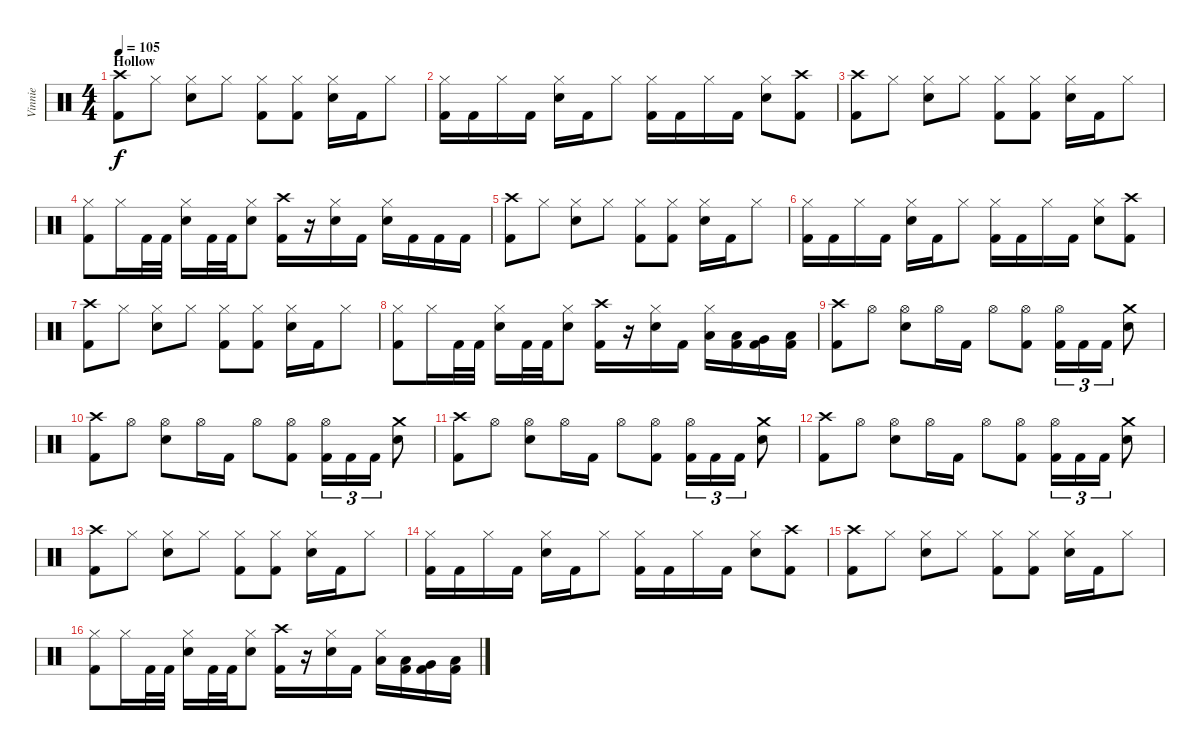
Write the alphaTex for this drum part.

\track ("Vinnie" "Vinnie") {instrument percussion}
\staff {score}
\articulation defaults
\ts (4 4)
\section ("" "Hollow")
\tempo 105
\clef neutral
\ks c
("Crash high (hit)" "Kick (hit) 2").8{dy f} "Hi-Hat (closed)".8 ("Hi-Hat (closed)" "Electric Snare (hit)").8 "Hi-Hat (closed)".8 ("Hi-Hat (closed)" "Kick (hit) 2").8 ("Hi-Hat (closed)" "Kick (hit) 2").8 ("Hi-Hat (closed)" "Electric Snare (hit)").16 "Kick (hit) 2".16 "Hi-Hat (closed)".8 |
("Hi-Hat (closed)" "Kick (hit) 2").16 "Kick (hit) 2".16 "Hi-Hat (closed)".16 "Kick (hit) 2".16 ("Hi-Hat (closed)" "Electric Snare (hit)").16 "Kick (hit) 2".16 "Hi-Hat (closed)".8 ("Hi-Hat (closed)" "Kick (hit) 2").16 "Kick (hit) 2".16 "Hi-Hat (closed)".16 "Kick (hit) 2".16 ("Hi-Hat (closed)" "Electric Snare (hit)").8 ("Crash high (hit)" "Kick (hit) 2").8 |
("Crash high (hit)" "Kick (hit) 2").8 "Hi-Hat (closed)".8 ("Hi-Hat (closed)" "Electric Snare (hit)").8 "Hi-Hat (closed)".8 ("Hi-Hat (closed)" "Kick (hit) 2").8 ("Hi-Hat (closed)" "Kick (hit) 2").8 ("Hi-Hat (closed)" "Electric Snare (hit)").16 "Kick (hit) 2".16 "Hi-Hat (closed)".8 |
("Hi-Hat (closed)" "Kick (hit) 2").8 "Hi-Hat (closed)".16 "Kick (hit) 2".32 "Kick (hit) 2".32 ("Hi-Hat (closed)" "Electric Snare (hit)").16 "Kick (hit) 2".32 "Kick (hit) 2".32 ("Hi-Hat (closed)" "Electric Snare (hit)").8 ("Crash high (hit)" "Kick (hit) 2").16 r.16 ("Hi-Hat (closed)" "Electric Snare (hit)").16 "Kick (hit) 2".16 ("Hi-Hat (closed)" "Electric Snare (hit)").16 "Kick (hit) 2".16 "Kick (hit) 2".16 "Kick (hit) 2".16 |
("Crash high (hit)" "Kick (hit) 2").8 "Hi-Hat (closed)".8 ("Hi-Hat (closed)" "Electric Snare (hit)").8 "Hi-Hat (closed)".8 ("Hi-Hat (closed)" "Kick (hit) 2").8 ("Hi-Hat (closed)" "Kick (hit) 2").8 ("Hi-Hat (closed)" "Electric Snare (hit)").16 "Kick (hit) 2".16 "Hi-Hat (closed)".8 |
("Hi-Hat (closed)" "Kick (hit) 2").16 "Kick (hit) 2".16 "Hi-Hat (closed)".16 "Kick (hit) 2".16 ("Hi-Hat (closed)" "Electric Snare (hit)").16 "Kick (hit) 2".16 "Hi-Hat (closed)".8 ("Hi-Hat (closed)" "Kick (hit) 2").16 "Kick (hit) 2".16 "Hi-Hat (closed)".16 "Kick (hit) 2".16 ("Hi-Hat (closed)" "Electric Snare (hit)").8 ("Crash high (hit)" "Kick (hit) 2").8 |
("Crash high (hit)" "Kick (hit) 2").8 "Hi-Hat (closed)".8 ("Hi-Hat (closed)" "Electric Snare (hit)").8 "Hi-Hat (closed)".8 ("Hi-Hat (closed)" "Kick (hit) 2").8 ("Hi-Hat (closed)" "Kick (hit) 2").8 ("Hi-Hat (closed)" "Electric Snare (hit)").16 "Kick (hit) 2".16 "Hi-Hat (closed)".8 |
("Hi-Hat (closed)" "Kick (hit) 2").8 "Hi-Hat (closed)".16 "Kick (hit) 2".32 "Kick (hit) 2".32 ("Hi-Hat (closed)" "Electric Snare (hit)").16 "Kick (hit) 2".32 "Kick (hit) 2".32 ("Hi-Hat (closed)" "Electric Snare (hit)").8 ("Crash high (hit)" "Kick (hit) 2").16 r.16 ("Hi-Hat (closed)" "Electric Snare (hit)").16 "Kick (hit) 2".16 ("Hi-Hat (closed)" "Low Tom (hit)").16 ("Low Tom (hit)" "Kick (hit) 2").16 ("Very Low Tom (hit)" "Kick (hit) 2").16 ("Low Floor Tom (hit)" "Kick (hit) 2").16 |
("Crash high (hit)" "Kick (hit) 2").8 "Hi-Hat (open)".8 ("Hi-Hat (open)" "Electric Snare (hit)").8 "Hi-Hat (open)".16 "Kick (hit) 2".16 "Hi-Hat (open)".8 ("Hi-Hat (open)" "Kick (hit) 2").8 ("Hi-Hat (open)" "Kick (hit) 2").16{tu (3 2)} "Kick (hit) 2".16{tu (3 2)} "Kick (hit) 2".16{tu (3 2)} ("Crash medium (hit)" "Electric Snare (hit)").8 |
("Crash high (hit)" "Kick (hit) 2").8 "Hi-Hat (open)".8 ("Hi-Hat (open)" "Electric Snare (hit)").8 "Hi-Hat (open)".16 "Kick (hit) 2".16 "Hi-Hat (open)".8 ("Hi-Hat (open)" "Kick (hit) 2").8 ("Hi-Hat (open)" "Kick (hit) 2").16{tu (3 2)} "Kick (hit) 2".16{tu (3 2)} "Kick (hit) 2".16{tu (3 2)} ("Crash medium (hit)" "Electric Snare (hit)").8 |
("Crash high (hit)" "Kick (hit) 2").8 "Hi-Hat (open)".8 ("Hi-Hat (open)" "Electric Snare (hit)").8 "Hi-Hat (open)".16 "Kick (hit) 2".16 "Hi-Hat (open)".8 ("Hi-Hat (open)" "Kick (hit) 2").8 ("Hi-Hat (open)" "Kick (hit) 2").16{tu (3 2)} "Kick (hit) 2".16{tu (3 2)} "Kick (hit) 2".16{tu (3 2)} ("Crash medium (hit)" "Electric Snare (hit)").8 |
("Crash high (hit)" "Kick (hit) 2").8 "Hi-Hat (open)".8 ("Hi-Hat (open)" "Electric Snare (hit)").8 "Hi-Hat (open)".16 "Kick (hit) 2".16 "Hi-Hat (open)".8 ("Hi-Hat (open)" "Kick (hit) 2").8 ("Hi-Hat (open)" "Kick (hit) 2").16{tu (3 2)} "Kick (hit) 2".16{tu (3 2)} "Kick (hit) 2".16{tu (3 2)} ("Crash medium (hit)" "Electric Snare (hit)").8 |
("Crash high (hit)" "Kick (hit) 2").8 "Hi-Hat (closed)".8 ("Hi-Hat (closed)" "Electric Snare (hit)").8 "Hi-Hat (closed)".8 ("Hi-Hat (closed)" "Kick (hit) 2").8 ("Hi-Hat (closed)" "Kick (hit) 2").8 ("Hi-Hat (closed)" "Electric Snare (hit)").16 "Kick (hit) 2".16 "Hi-Hat (closed)".8 |
("Hi-Hat (closed)" "Kick (hit) 2").16 "Kick (hit) 2".16 "Hi-Hat (closed)".16 "Kick (hit) 2".16 ("Hi-Hat (closed)" "Electric Snare (hit)").16 "Kick (hit) 2".16 "Hi-Hat (closed)".8 ("Hi-Hat (closed)" "Kick (hit) 2").16 "Kick (hit) 2".16 "Hi-Hat (closed)".16 "Kick (hit) 2".16 ("Hi-Hat (closed)" "Electric Snare (hit)").8 ("Crash high (hit)" "Kick (hit) 2").8 |
("Crash high (hit)" "Kick (hit) 2").8 "Hi-Hat (closed)".8 ("Hi-Hat (closed)" "Electric Snare (hit)").8 "Hi-Hat (closed)".8 ("Hi-Hat (closed)" "Kick (hit) 2").8 ("Hi-Hat (closed)" "Kick (hit) 2").8 ("Hi-Hat (closed)" "Electric Snare (hit)").16 "Kick (hit) 2".16 "Hi-Hat (closed)".8 |
("Hi-Hat (closed)" "Kick (hit) 2").8 "Hi-Hat (closed)".16 "Kick (hit) 2".32 "Kick (hit) 2".32 ("Hi-Hat (closed)" "Electric Snare (hit)").16 "Kick (hit) 2".32 "Kick (hit) 2".32 ("Hi-Hat (closed)" "Electric Snare (hit)").8 ("Crash high (hit)" "Kick (hit) 2").16 r.16 ("Hi-Hat (closed)" "Electric Snare (hit)").16 "Kick (hit) 2".16 ("Hi-Hat (closed)" "Low Tom (hit)").16 ("Low Tom (hit)" "Kick (hit) 2").16 ("Very Low Tom (hit)" "Kick (hit) 2").16 ("Low Floor Tom (hit)" "Kick (hit) 2").16
